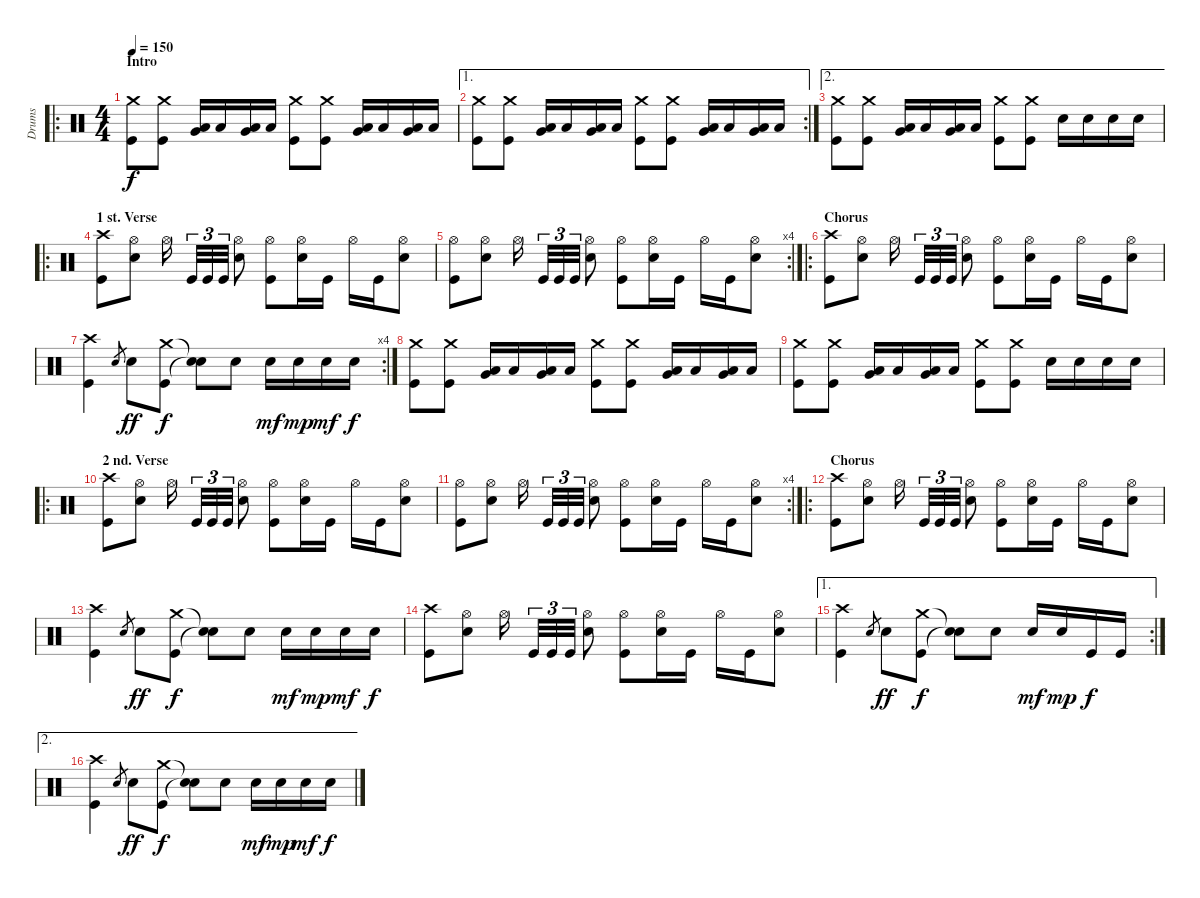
\track ("Drums" "Drums") {instrument percussion}
\staff {score}
\articulation defaults
\ro
\ts (4 4)
\section ("" "Intro")
\tempo 150
\clef neutral
\ks c
("Crash medium (hit)" "Kick (hit)").8{dy f} ("Crash medium (hit)" "Kick (hit)").8 ("Very Low Tom (hit)" "Low Tom (hit)").16 "Low Tom (hit)".16 ("Very Low Tom (hit)" "Low Tom (hit)").16 "Low Tom (hit)".16 ("Crash medium (hit)" "Kick (hit)").8 ("Crash medium (hit)" "Kick (hit)").8 ("Very Low Tom (hit)" "Low Tom (hit)").16 "Low Tom (hit)".16 ("Very Low Tom (hit)" "Low Tom (hit)").16 "Low Tom (hit)".16 |
\ae 1
\rc 2
("Crash medium (hit)" "Kick (hit)").8 ("Crash medium (hit)" "Kick (hit)").8 ("Very Low Tom (hit)" "Low Tom (hit)").16 "Low Tom (hit)".16 ("Very Low Tom (hit)" "Low Tom (hit)").16 "Low Tom (hit)".16 ("Crash medium (hit)" "Kick (hit)").8 ("Crash medium (hit)" "Kick (hit)").8 ("Very Low Tom (hit)" "Low Tom (hit)").16 "Low Tom (hit)".16 ("Very Low Tom (hit)" "Low Tom (hit)").16 "Low Tom (hit)".16 |
\ae 2
("Crash medium (hit)" "Kick (hit)").8 ("Crash medium (hit)" "Kick (hit)").8 ("Very Low Tom (hit)" "Low Tom (hit)").16 "Low Tom (hit)".16 ("Very Low Tom (hit)" "Low Tom (hit)").16 "Low Tom (hit)".16 ("Crash medium (hit)" "Kick (hit)").8 ("Crash medium (hit)" "Kick (hit)").8 "Electric Snare (hit)".16 "Electric Snare (hit)".16 "Electric Snare (hit)".16 "Electric Snare (hit)".16 |
\ro
\section ("" "1 st. Verse")
("Crash high (hit)" "Kick (hit)").8 ("Hi-Hat (open)" "Electric Snare (hit)").8 "Hi-Hat (open)".16 "Kick (hit)".32{tu (3 2)} "Kick (hit)".32{tu (3 2)} "Kick (hit)".32{tu (3 2)} ("Hi-Hat (open)" "Electric Snare (hit)").8 ("Hi-Hat (open)" "Kick (hit)").8 ("Hi-Hat (open)" "Electric Snare (hit)").16 "Kick (hit)".16 "Hi-Hat (open)".16 "Kick (hit)".16 ("Hi-Hat (open)" "Electric Snare (hit)").8 |
\rc 4
("Hi-Hat (open)" "Kick (hit)").8 ("Hi-Hat (open)" "Electric Snare (hit)").8 "Hi-Hat (open)".16 "Kick (hit)".32{tu (3 2)} "Kick (hit)".32{tu (3 2)} "Kick (hit)".32{tu (3 2)} ("Hi-Hat (open)" "Electric Snare (hit)").8 ("Hi-Hat (open)" "Kick (hit)").8 ("Hi-Hat (open)" "Electric Snare (hit)").16 "Kick (hit)".16 "Hi-Hat (open)".16 "Kick (hit)".16 ("Hi-Hat (open)" "Electric Snare (hit)").8 |
\ro
\section ("" "Chorus")
("Crash high (hit)" "Kick (hit)").8 ("Hi-Hat (open)" "Electric Snare (hit)").8 "Hi-Hat (open)".16 "Kick (hit)".32{tu (3 2)} "Kick (hit)".32{tu (3 2)} "Kick (hit)".32{tu (3 2)} ("Hi-Hat (open)" "Electric Snare (hit)").8 ("Hi-Hat (open)" "Kick (hit)").8 ("Hi-Hat (open)" "Electric Snare (hit)").16 "Kick (hit)".16 "Hi-Hat (open)".16 "Kick (hit)".16 ("Hi-Hat (open)" "Electric Snare (hit)").8 |
\rc 4
("Crash high (hit)" "Kick (hit)").4 "Electric Snare (hit)".8{gr} "Electric Snare (hit)".8{dy ff} ("Crash medium (hit)" "Kick (hit)").8{dy f} ("Snare (hit)"{t} "Snare (hit)"{t}).8 "Electric Snare (hit)".8 "Electric Snare (hit)".16{dy mf} "Electric Snare (hit)".16{dy mp} "Electric Snare (hit)".16{dy mf} "Electric Snare (hit)".16{dy f} |
("Crash medium (hit)" "Kick (hit)").8 ("Crash medium (hit)" "Kick (hit)").8 ("Very Low Tom (hit)" "Low Tom (hit)").16 "Low Tom (hit)".16 ("Very Low Tom (hit)" "Low Tom (hit)").16 "Low Tom (hit)".16 ("Crash medium (hit)" "Kick (hit)").8 ("Crash medium (hit)" "Kick (hit)").8 ("Very Low Tom (hit)" "Low Tom (hit)").16 "Low Tom (hit)".16 ("Very Low Tom (hit)" "Low Tom (hit)").16 "Low Tom (hit)".16 |
("Crash medium (hit)" "Kick (hit)").8 ("Crash medium (hit)" "Kick (hit)").8 ("Very Low Tom (hit)" "Low Tom (hit)").16 "Low Tom (hit)".16 ("Very Low Tom (hit)" "Low Tom (hit)").16 "Low Tom (hit)".16 ("Crash medium (hit)" "Kick (hit)").8 ("Crash medium (hit)" "Kick (hit)").8 "Electric Snare (hit)".16 "Electric Snare (hit)".16 "Electric Snare (hit)".16 "Electric Snare (hit)".16 |
\ro
\section ("" "2 nd. Verse")
("Crash high (hit)" "Kick (hit)").8 ("Hi-Hat (open)" "Electric Snare (hit)").8 "Hi-Hat (open)".16 "Kick (hit)".32{tu (3 2)} "Kick (hit)".32{tu (3 2)} "Kick (hit)".32{tu (3 2)} ("Hi-Hat (open)" "Electric Snare (hit)").8 ("Hi-Hat (open)" "Kick (hit)").8 ("Hi-Hat (open)" "Electric Snare (hit)").16 "Kick (hit)".16 "Hi-Hat (open)".16 "Kick (hit)".16 ("Hi-Hat (open)" "Electric Snare (hit)").8 |
\rc 4
("Hi-Hat (open)" "Kick (hit)").8 ("Hi-Hat (open)" "Electric Snare (hit)").8 "Hi-Hat (open)".16 "Kick (hit)".32{tu (3 2)} "Kick (hit)".32{tu (3 2)} "Kick (hit)".32{tu (3 2)} ("Hi-Hat (open)" "Electric Snare (hit)").8 ("Hi-Hat (open)" "Kick (hit)").8 ("Hi-Hat (open)" "Electric Snare (hit)").16 "Kick (hit)".16 "Hi-Hat (open)".16 "Kick (hit)".16 ("Hi-Hat (open)" "Electric Snare (hit)").8 |
\ro
\section ("" "Chorus")
("Crash high (hit)" "Kick (hit)").8 ("Hi-Hat (open)" "Electric Snare (hit)").8 "Hi-Hat (open)".16 "Kick (hit)".32{tu (3 2)} "Kick (hit)".32{tu (3 2)} "Kick (hit)".32{tu (3 2)} ("Hi-Hat (open)" "Electric Snare (hit)").8 ("Hi-Hat (open)" "Kick (hit)").8 ("Hi-Hat (open)" "Electric Snare (hit)").16 "Kick (hit)".16 "Hi-Hat (open)".16 "Kick (hit)".16 ("Hi-Hat (open)" "Electric Snare (hit)").8 |
("Crash high (hit)" "Kick (hit)").4 "Electric Snare (hit)".8{gr} "Electric Snare (hit)".8{dy ff} ("Crash medium (hit)" "Kick (hit)").8{dy f} ("Snare (hit)"{t} "Snare (hit)"{t}).8 "Electric Snare (hit)".8 "Electric Snare (hit)".16{dy mf} "Electric Snare (hit)".16{dy mp} "Electric Snare (hit)".16{dy mf} "Electric Snare (hit)".16{dy f} |
("Crash high (hit)" "Kick (hit)").8 ("Hi-Hat (open)" "Electric Snare (hit)").8 "Hi-Hat (open)".16 "Kick (hit)".32{tu (3 2)} "Kick (hit)".32{tu (3 2)} "Kick (hit)".32{tu (3 2)} ("Hi-Hat (open)" "Electric Snare (hit)").8 ("Hi-Hat (open)" "Kick (hit)").8 ("Hi-Hat (open)" "Electric Snare (hit)").16 "Kick (hit)".16 "Hi-Hat (open)".16 "Kick (hit)".16 ("Hi-Hat (open)" "Electric Snare (hit)").8 |
\ae 1
\rc 2
("Crash high (hit)" "Kick (hit)").4 "Electric Snare (hit)".8{gr} "Electric Snare (hit)".8{dy ff} ("Crash medium (hit)" "Kick (hit)").8{dy f} ("Snare (hit)"{t} "Snare (hit)"{t}).8 "Electric Snare (hit)".8 "Electric Snare (hit)".16{dy mf} "Electric Snare (hit)".16{dy mp} "Kick (hit)".16{dy f} "Kick (hit)".16 |
\ae 2
("Crash high (hit)" "Kick (hit)").4 "Electric Snare (hit)".8{gr} "Electric Snare (hit)".8{dy ff} ("Crash medium (hit)" "Kick (hit)").8{dy f} ("Snare (hit)"{t} "Snare (hit)"{t}).8 "Electric Snare (hit)".8 "Electric Snare (hit)".16{dy mf} "Electric Snare (hit)".16{dy mp} "Electric Snare (hit)".16{dy mf} "Electric Snare (hit)".16{dy f}
